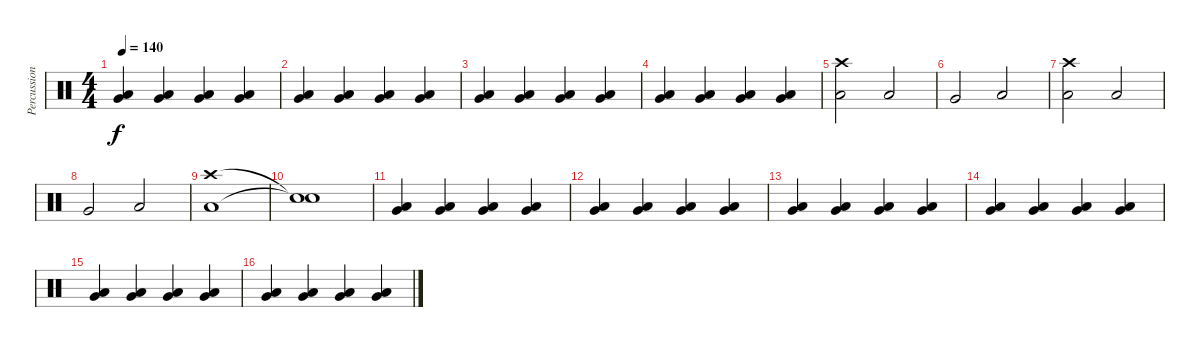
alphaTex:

\track ("Percussion" "Percussion") {instrument percussion}
\staff {score}
\articulation defaults
\ts (4 4)
\tempo 140
\clef neutral
\ks c
("Low Tom (hit)" "Very Low Tom (hit)").4{dy f} ("Low Tom (hit)" "Very Low Tom (hit)").4 ("Low Tom (hit)" "Very Low Tom (hit)").4 ("Low Tom (hit)" "Very Low Tom (hit)").4 |
("Low Tom (hit)" "Very Low Tom (hit)").4 ("Low Tom (hit)" "Very Low Tom (hit)").4 ("Low Tom (hit)" "Very Low Tom (hit)").4 ("Low Tom (hit)" "Very Low Tom (hit)").4 |
("Low Tom (hit)" "Very Low Tom (hit)").4 ("Low Tom (hit)" "Very Low Tom (hit)").4 ("Low Tom (hit)" "Very Low Tom (hit)").4 ("Low Tom (hit)" "Very Low Tom (hit)").4 |
("Low Tom (hit)" "Very Low Tom (hit)").4 ("Low Tom (hit)" "Very Low Tom (hit)").4 ("Low Tom (hit)" "Very Low Tom (hit)").4 ("Low Tom (hit)" "Very Low Tom (hit)").4 |
("Crash high (hit)" "Low Tom (hit)").2 "Low Tom (hit)".2 |
"Very Low Tom (hit)".2 "Low Floor Tom (hit)".2 |
("Crash high (hit)" "Low Tom (hit)").2 "Low Tom (hit)".2 |
"Very Low Tom (hit)".2 "Low Floor Tom (hit)".2 |
("Crash high (hit)" "Low Tom (hit)").1 |
("Snare (hit)"{t} "Snare (hit)"{t}).1 |
("Low Tom (hit)" "Very Low Tom (hit)").4 ("Low Tom (hit)" "Very Low Tom (hit)").4 ("Low Tom (hit)" "Very Low Tom (hit)").4 ("Low Tom (hit)" "Very Low Tom (hit)").4 |
("Low Tom (hit)" "Very Low Tom (hit)").4 ("Low Tom (hit)" "Very Low Tom (hit)").4 ("Low Tom (hit)" "Very Low Tom (hit)").4 ("Low Tom (hit)" "Very Low Tom (hit)").4 |
("Low Tom (hit)" "Very Low Tom (hit)").4 ("Low Tom (hit)" "Very Low Tom (hit)").4 ("Low Tom (hit)" "Very Low Tom (hit)").4 ("Low Tom (hit)" "Very Low Tom (hit)").4 |
("Low Tom (hit)" "Very Low Tom (hit)").4 ("Low Tom (hit)" "Very Low Tom (hit)").4 ("Low Tom (hit)" "Very Low Tom (hit)").4 ("Low Tom (hit)" "Very Low Tom (hit)").4 |
("Low Tom (hit)" "Very Low Tom (hit)").4 ("Low Tom (hit)" "Very Low Tom (hit)").4 ("Low Tom (hit)" "Very Low Tom (hit)").4 ("Low Tom (hit)" "Very Low Tom (hit)").4 |
("Low Tom (hit)" "Very Low Tom (hit)").4 ("Low Tom (hit)" "Very Low Tom (hit)").4 ("Low Tom (hit)" "Very Low Tom (hit)").4 ("Low Tom (hit)" "Very Low Tom (hit)").4
